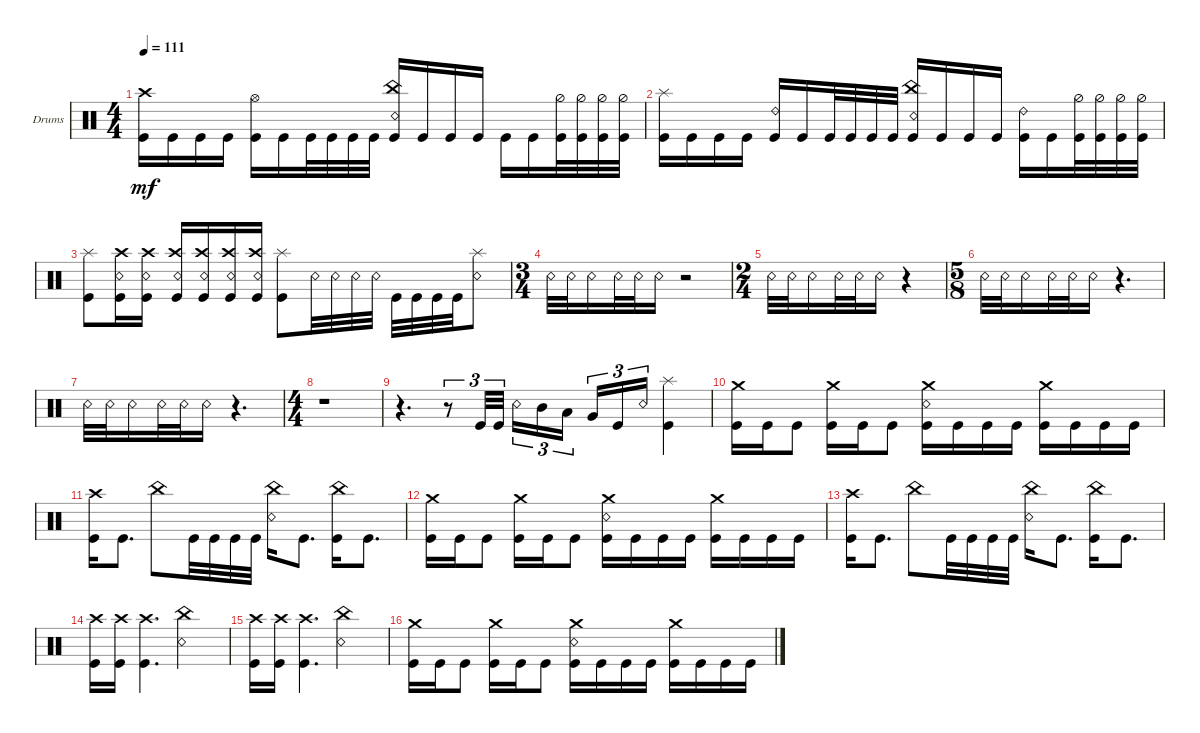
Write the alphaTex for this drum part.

\defaultSystemsLayout 4
\bracketExtendMode groupsimilarinstruments
\firstSystemTrackNameOrientation horizontal
\otherSystemsTrackNameOrientation horizontal
\track ("Drums" "Drums") {instrument percussion}
\staff {score}
\articulation defaults
\ts (4 4)
\tempo 111
\clef neutral
\ks c
("Kick (hit)" "Crash high (hit)").16{dy mf} "Kick (hit)".16 "Kick (hit)".16 "Kick (hit)".16 ("Kick (hit)" "Hi-Hat (open)").16 "Kick (hit)".16 "Kick (hit)".32 "Kick (hit)".32 "Kick (hit)".32 "Kick (hit)".32 ("Kick (hit)" "China (hit)" "Snare (rim shot)").16 "Kick (hit)".16 "Kick (hit)".16 "Kick (hit)".16 "Kick (hit)".16 "Kick (hit)".16 ("Kick (hit)" "Hi-Hat (half)").32 ("Kick (hit)" "Hi-Hat (half)").32 ("Kick (hit)" "Hi-Hat (half)").32 ("Kick (hit)" "Hi-Hat (half)").32 |
("Kick (hit)" "Splash (hit)").16 "Kick (hit)".16 "Kick (hit)".16 "Kick (hit)".16 ("Kick (hit)" "Ride (bell) 2").16 "Kick (hit)".16 "Kick (hit)".32 "Kick (hit)".32 "Kick (hit)".32 "Kick (hit)".32 ("Kick (hit)" "China (hit)" "Snare (rim shot)").16 "Kick (hit)".16 "Kick (hit)".16 "Kick (hit)".16 ("Kick (hit)" "Ride (bell) 2").16 "Kick (hit)".16 ("Kick (hit)" "Hi-Hat (half)").32 ("Kick (hit)" "Hi-Hat (half)").32 ("Kick (hit)" "Hi-Hat (half)").32 ("Kick (hit)" "Hi-Hat (half)").32 |
("Kick (hit)" "Splash (hit)").8 ("Kick (hit)" "Crash high (hit)" "Snare (rim shot)").16 ("Kick (hit)" "Crash high (hit)" "Snare (rim shot)").16 ("Kick (hit)" "Crash high (hit)" "Snare (rim shot)").16 ("Kick (hit)" "Crash high (hit)" "Snare (rim shot)").16 ("Kick (hit)" "Crash high (hit)" "Snare (rim shot)").16 ("Kick (hit)" "Crash high (hit)" "Snare (rim shot)").16 ("Kick (hit)" "Splash (hit)").8 "Snare (rim shot)".32 "Snare (rim shot)".32 "Snare (rim shot)".32 "Snare (rim shot)".32 "Kick (hit)".32 "Kick (hit)".32 "Kick (hit)".32 "Kick (hit)".32 ("Snare (rim shot)" "Splash (hit)").8 |
\ts (3 4)
"Snare (rim shot)".32 "Snare (rim shot)".32 "Snare (rim shot)".16 "Snare (rim shot)".32 "Snare (rim shot)".32 "Snare (rim shot)".16 r.2 |
\ts (2 4)
"Snare (rim shot)".32 "Snare (rim shot)".32 "Snare (rim shot)".16 "Snare (rim shot)".32 "Snare (rim shot)".32 "Snare (rim shot)".16 r.4 |
\ts (5 8)
"Snare (rim shot)".32 "Snare (rim shot)".32 "Snare (rim shot)".16 "Snare (rim shot)".32 "Snare (rim shot)".32 "Snare (rim shot)".16 r.4{d} |
"Snare (rim shot)".32 "Snare (rim shot)".32 "Snare (rim shot)".16 "Snare (rim shot)".32 "Snare (rim shot)".32 "Snare (rim shot)".16 r.4{d} |
\ts (4 4)
r.1 |
r.4{d} r.8{tu (3 2)} "Kick (hit)".32{tu (3 2)} "Kick (hit)".32{tu (3 2)} "Snare (rim shot)".16{tu (3 2)} "Mid Tom (hit)".16{tu (3 2)} "Low Tom (hit)".16{tu (3 2)} "Very Low Tom (hit)".16{tu (3 2)} "Kick (hit)".16{tu (3 2)} "Snare (rim shot)".16{tu (3 2)} ("Kick (hit)" "Splash (hit)").4 |
("Kick (hit)" "Crash medium (hit)").16 "Kick (hit)".16 "Kick (hit)".8 ("Kick (hit)" "Crash medium (hit)").16 "Kick (hit)".16 "Kick (hit)".8 ("Kick (hit)" "Crash medium (hit)" "Snare (rim shot)").16 "Kick (hit)".16 "Kick (hit)".16 "Kick (hit)".16 ("Kick (hit)" "Crash medium (hit)").16 "Kick (hit)".16 "Kick (hit)".16 "Kick (hit)".16 |
("Kick (hit)" "Crash high (hit)").16 "Kick (hit)".8{d} "China (hit)".8 "Kick (hit)".32 "Kick (hit)".32 "Kick (hit)".32 "Kick (hit)".32 ("Snare (rim shot)" "China (hit)").16 "Kick (hit)".8{d} ("Kick (hit)" "China (hit)").16 "Kick (hit)".8{d} |
("Kick (hit)" "Crash medium (hit)").16 "Kick (hit)".16 "Kick (hit)".8 ("Kick (hit)" "Crash medium (hit)").16 "Kick (hit)".16 "Kick (hit)".8 ("Kick (hit)" "Crash medium (hit)" "Snare (rim shot)").16 "Kick (hit)".16 "Kick (hit)".16 "Kick (hit)".16 ("Kick (hit)" "Crash medium (hit)").16 "Kick (hit)".16 "Kick (hit)".16 "Kick (hit)".16 |
("Kick (hit)" "Crash high (hit)").16 "Kick (hit)".8{d} "China (hit)".8 "Kick (hit)".32 "Kick (hit)".32 "Kick (hit)".32 "Kick (hit)".32 ("Snare (rim shot)" "China (hit)").16 "Kick (hit)".8{d} ("Kick (hit)" "China (hit)").16 "Kick (hit)".8{d} |
("Kick (hit)" "Crash high (hit)").16 ("Kick (hit)" "Crash high (hit)").16 ("Kick (hit)" "Crash high (hit)").4{d} ("Snare (rim shot)" "China (hit)").2 |
("Kick (hit)" "Crash high (hit)").16 ("Kick (hit)" "Crash high (hit)").16 ("Kick (hit)" "Crash high (hit)").4{d} ("Snare (rim shot)" "China (hit)").2 |
("Kick (hit)" "Crash medium (hit)").16 "Kick (hit)".16 "Kick (hit)".8 ("Kick (hit)" "Crash medium (hit)").16 "Kick (hit)".16 "Kick (hit)".8 ("Kick (hit)" "Crash medium (hit)" "Snare (rim shot)").16 "Kick (hit)".16 "Kick (hit)".16 "Kick (hit)".16 ("Kick (hit)" "Crash medium (hit)").16 "Kick (hit)".16 "Kick (hit)".16 "Kick (hit)".16
